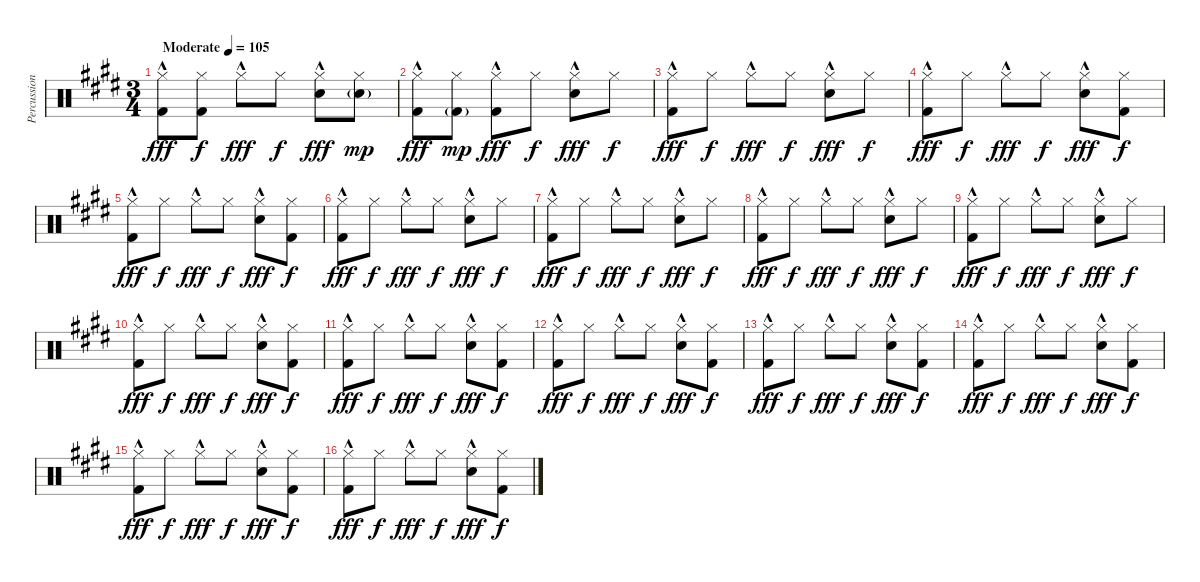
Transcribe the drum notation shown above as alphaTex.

\track ("Percussion" "Percussion") {instrument percussion}
\staff {score}
\articulation defaults
\ts (3 4)
\tempo (105 "Moderate")
\clef neutral
\ks c#minor
("Hi-Hat (closed)"{hac} "Kick (hit) 2").8{dy fff} ("Hi-Hat (closed)" "Kick (hit) 2").8{dy f} "Hi-Hat (closed)"{hac}.8{dy fff} "Hi-Hat (closed)".8{dy f} ("Hi-Hat (closed)"{hac} "Snare (hit) 2").8{dy fff} ("Hi-Hat (closed)" "Snare (hit) 2"{g}).8{dy mp} |
("Hi-Hat (closed)"{hac} "Kick (hit) 2").8{dy fff} ("Hi-Hat (closed)" "Kick (hit) 2"{g}).8{dy mp} ("Hi-Hat (closed)"{hac} "Kick (hit) 2").8{dy fff} "Hi-Hat (closed)".8{dy f} ("Hi-Hat (closed)"{hac} "Snare (hit) 2").8{dy fff} "Hi-Hat (closed)".8{dy f} |
("Hi-Hat (closed)"{hac} "Kick (hit) 2").8{dy fff} "Hi-Hat (closed)".8{dy f} "Hi-Hat (closed)"{hac}.8{dy fff} "Hi-Hat (closed)".8{dy f} ("Hi-Hat (closed)"{hac} "Snare (hit) 2").8{dy fff} "Hi-Hat (closed)".8{dy f} |
("Hi-Hat (closed)"{hac} "Kick (hit) 2").8{dy fff} "Hi-Hat (closed)".8{dy f} "Hi-Hat (closed)"{hac}.8{dy fff} "Hi-Hat (closed)".8{dy f} ("Hi-Hat (closed)"{hac} "Snare (hit) 2").8{dy fff} ("Hi-Hat (closed)" "Kick (hit) 2").8{dy f} |
("Hi-Hat (closed)"{hac} "Kick (hit) 2").8{dy fff} "Hi-Hat (closed)".8{dy f} "Hi-Hat (closed)"{hac}.8{dy fff} "Hi-Hat (closed)".8{dy f} ("Hi-Hat (closed)"{hac} "Snare (hit) 2").8{dy fff} ("Hi-Hat (closed)" "Kick (hit) 2").8{dy f} |
("Hi-Hat (closed)"{hac} "Kick (hit) 2").8{dy fff} "Hi-Hat (closed)".8{dy f} "Hi-Hat (closed)"{hac}.8{dy fff} "Hi-Hat (closed)".8{dy f} ("Hi-Hat (closed)"{hac} "Snare (hit) 2").8{dy fff} "Hi-Hat (closed)".8{dy f} |
("Hi-Hat (closed)"{hac} "Kick (hit) 2").8{dy fff} "Hi-Hat (closed)".8{dy f} "Hi-Hat (closed)"{hac}.8{dy fff} "Hi-Hat (closed)".8{dy f} ("Hi-Hat (closed)"{hac} "Snare (hit) 2").8{dy fff} "Hi-Hat (closed)".8{dy f} |
("Hi-Hat (closed)"{hac} "Kick (hit) 2").8{dy fff} "Hi-Hat (closed)".8{dy f} "Hi-Hat (closed)"{hac}.8{dy fff} "Hi-Hat (closed)".8{dy f} ("Hi-Hat (closed)"{hac} "Snare (hit) 2").8{dy fff} "Hi-Hat (closed)".8{dy f} |
("Hi-Hat (closed)"{hac} "Kick (hit) 2").8{dy fff} "Hi-Hat (closed)".8{dy f} "Hi-Hat (closed)"{hac}.8{dy fff} "Hi-Hat (closed)".8{dy f} ("Hi-Hat (closed)"{hac} "Snare (hit) 2").8{dy fff} "Hi-Hat (closed)".8{dy f} |
("Hi-Hat (closed)"{hac} "Kick (hit) 2").8{dy fff} "Hi-Hat (closed)".8{dy f} "Hi-Hat (closed)"{hac}.8{dy fff} "Hi-Hat (closed)".8{dy f} ("Hi-Hat (closed)"{hac} "Snare (hit) 2").8{dy fff} ("Hi-Hat (closed)" "Kick (hit) 2").8{dy f} |
("Hi-Hat (closed)"{hac} "Kick (hit) 2").8{dy fff} "Hi-Hat (closed)".8{dy f} "Hi-Hat (closed)"{hac}.8{dy fff} "Hi-Hat (closed)".8{dy f} ("Hi-Hat (closed)"{hac} "Snare (hit) 2").8{dy fff} ("Hi-Hat (closed)" "Kick (hit) 2").8{dy f} |
("Hi-Hat (closed)"{hac} "Kick (hit) 2").8{dy fff} "Hi-Hat (closed)".8{dy f} "Hi-Hat (closed)"{hac}.8{dy fff} "Hi-Hat (closed)".8{dy f} ("Hi-Hat (closed)"{hac} "Snare (hit) 2").8{dy fff} ("Hi-Hat (closed)" "Kick (hit) 2").8{dy f} |
("Hi-Hat (closed)"{hac} "Kick (hit) 2").8{dy fff} "Hi-Hat (closed)".8{dy f} "Hi-Hat (closed)"{hac}.8{dy fff} "Hi-Hat (closed)".8{dy f} ("Hi-Hat (closed)"{hac} "Snare (hit) 2").8{dy fff} ("Hi-Hat (closed)" "Kick (hit) 2").8{dy f} |
("Hi-Hat (closed)"{hac} "Kick (hit) 2").8{dy fff} "Hi-Hat (closed)".8{dy f} "Hi-Hat (closed)"{hac}.8{dy fff} "Hi-Hat (closed)".8{dy f} ("Hi-Hat (closed)"{hac} "Snare (hit) 2").8{dy fff} ("Hi-Hat (closed)" "Kick (hit) 2").8{dy f} |
("Hi-Hat (closed)"{hac} "Kick (hit) 2").8{dy fff} "Hi-Hat (closed)".8{dy f} "Hi-Hat (closed)"{hac}.8{dy fff} "Hi-Hat (closed)".8{dy f} ("Hi-Hat (closed)"{hac} "Snare (hit) 2").8{dy fff} ("Hi-Hat (closed)" "Kick (hit) 2").8{dy f} |
("Hi-Hat (closed)"{hac} "Kick (hit) 2").8{dy fff} "Hi-Hat (closed)".8{dy f} "Hi-Hat (closed)"{hac}.8{dy fff} "Hi-Hat (closed)".8{dy f} ("Hi-Hat (closed)"{hac} "Snare (hit) 2").8{dy fff} ("Hi-Hat (closed)" "Kick (hit) 2").8{dy f}
